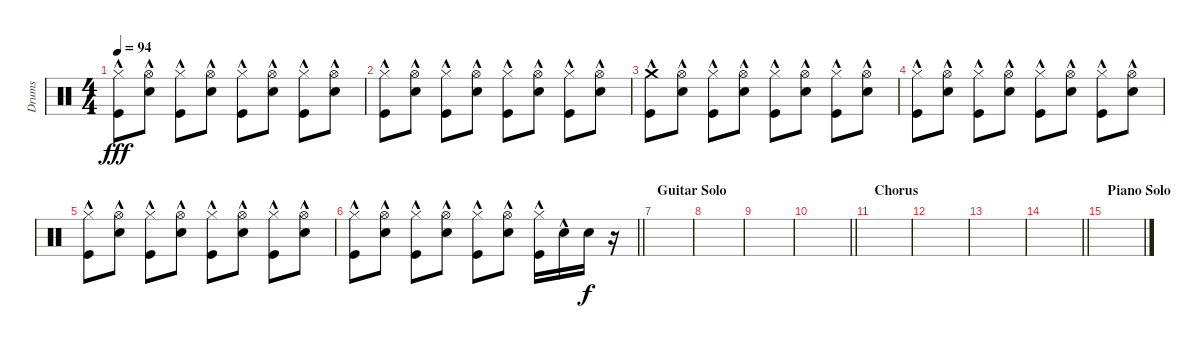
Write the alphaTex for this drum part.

\track ("Drums" "Drums") {instrument percussion}
\staff {score}
\articulation defaults
\ts (4 4)
\tempo 94
\clef neutral
\ks c
("Hi-Hat (closed)" "Kick (hit)"{hac}).8{dy fff} ("Hi-Hat (open)" "Snare (hit) 2"{hac}).8 ("Hi-Hat (closed)" "Kick (hit)"{hac}).8 ("Hi-Hat (open)" "Snare (hit) 2"{hac}).8 ("Hi-Hat (closed)" "Kick (hit)"{hac}).8 ("Hi-Hat (open)" "Snare (hit) 2"{hac}).8 ("Hi-Hat (closed)" "Kick (hit)"{hac}).8 ("Hi-Hat (open)" "Snare (hit) 2"{hac}).8 |
("Hi-Hat (closed)" "Kick (hit)"{hac}).8 ("Hi-Hat (open)" "Snare (hit) 2"{hac}).8 ("Hi-Hat (closed)" "Kick (hit)"{hac}).8 ("Hi-Hat (open)" "Snare (hit) 2"{hac}).8 ("Hi-Hat (closed)" "Kick (hit)"{hac}).8 ("Hi-Hat (open)" "Snare (hit) 2"{hac}).8 ("Hi-Hat (closed)" "Kick (hit)"{hac}).8 ("Hi-Hat (open)" "Snare (hit) 2"{hac}).8 |
("Crash medium (hit)" "Kick (hit)"{hac}).8 ("Hi-Hat (open)" "Snare (hit) 2"{hac}).8 ("Hi-Hat (closed)" "Kick (hit)"{hac}).8 ("Hi-Hat (open)" "Snare (hit) 2"{hac}).8 ("Hi-Hat (closed)" "Kick (hit)"{hac}).8 ("Hi-Hat (open)" "Snare (hit) 2"{hac}).8 ("Hi-Hat (closed)" "Kick (hit)"{hac}).8 ("Hi-Hat (open)" "Snare (hit) 2"{hac}).8 |
("Hi-Hat (closed)" "Kick (hit)"{hac}).8 ("Hi-Hat (open)" "Snare (hit) 2"{hac}).8 ("Hi-Hat (closed)" "Kick (hit)"{hac}).8 ("Hi-Hat (open)" "Snare (hit) 2"{hac}).8 ("Hi-Hat (closed)" "Kick (hit)"{hac}).8 ("Hi-Hat (open)" "Snare (hit) 2"{hac}).8 ("Hi-Hat (closed)" "Kick (hit)"{hac}).8 ("Hi-Hat (open)" "Snare (hit) 2"{hac}).8 |
("Hi-Hat (closed)" "Kick (hit)"{hac}).8 ("Hi-Hat (open)" "Snare (hit) 2"{hac}).8 ("Hi-Hat (closed)" "Kick (hit)"{hac}).8 ("Hi-Hat (open)" "Snare (hit) 2"{hac}).8 ("Hi-Hat (closed)" "Kick (hit)"{hac}).8 ("Hi-Hat (open)" "Snare (hit) 2"{hac}).8 ("Hi-Hat (closed)" "Kick (hit)"{hac}).8 ("Hi-Hat (open)" "Snare (hit) 2"{hac}).8 |
\barLineRight lightlight
("Hi-Hat (closed)" "Kick (hit)"{hac}).8 ("Hi-Hat (open)" "Snare (hit) 2"{hac}).8 ("Hi-Hat (closed)" "Kick (hit)"{hac}).8 ("Hi-Hat (open)" "Snare (hit) 2"{hac}).8 ("Hi-Hat (closed)" "Kick (hit)"{hac}).8 ("Hi-Hat (open)" "Snare (hit) 2"{hac}).8 ("Hi-Hat (closed)" "Kick (hit)"{hac}).16 "Snare (hit) 2"{hac}.16 "Snare (hit) 2".16{dy f} r.16 |
\section ("" "Guitar Solo")
|
|
|
\barLineRight lightlight
|
\section ("" "Chorus")
|
|
|
\barLineRight lightlight
|
\section ("" "Piano Solo")
